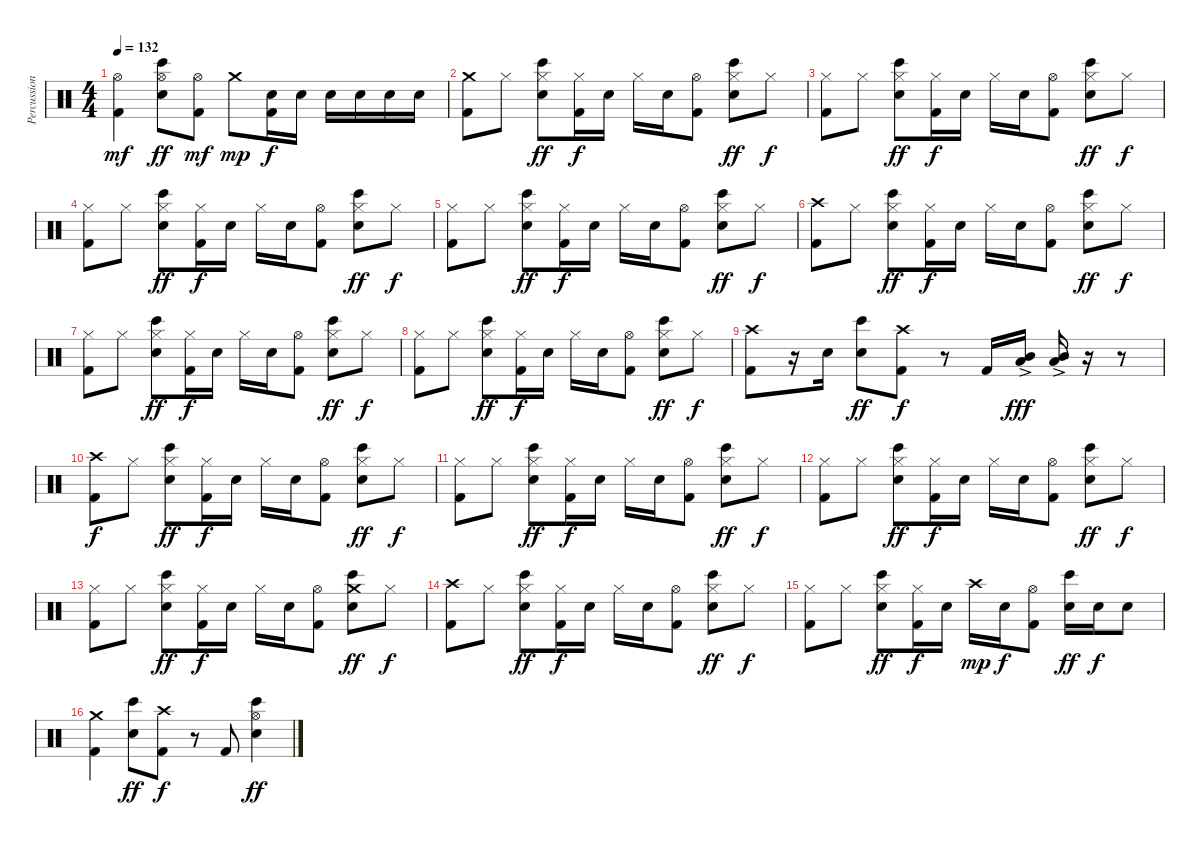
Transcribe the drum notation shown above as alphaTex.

\track ("Percussion" "Percussion") {instrument percussion}
\staff {score}
\articulation defaults
\ts (4 4)
\tempo 132
\clef neutral
\ks c
("Hi-Hat (open)" "Kick (hit) 2").4{dy mf} ("Hi-Hat (open)" "Bongo High (hit)" "Snare (hit) 2").8{dy ff} ("Hi-Hat (open)" "Kick (hit) 2").8{dy mf} "Crash medium (hit)".8{dy mp} ("Snare (hit) 2" "Kick (hit) 2").16{dy f} "Snare (hit) 2".16 "Snare (hit) 2".16 "Snare (hit) 2".16 "Snare (hit) 2".16 "Snare (hit) 2".16 |
("Crash medium (hit)" "Kick (hit) 2").8 "Hi-Hat (closed)".8 ("Hi-Hat (closed)" "Bongo High (hit)" "Snare (hit) 2").8{dy ff} ("Hi-Hat (closed)" "Kick (hit) 2").16{dy f} "Snare (hit) 2".16 "Hi-Hat (closed)".16 "Snare (hit) 2".16 ("Hi-Hat (open)" "Kick (hit) 2").8 ("Hi-Hat (closed)" "Bongo High (hit)" "Snare (hit) 2").8{dy ff} "Hi-Hat (closed)".8{dy f} |
("Hi-Hat (closed)" "Kick (hit) 2").8 "Hi-Hat (closed)".8 ("Hi-Hat (closed)" "Bongo High (hit)" "Snare (hit) 2").8{dy ff} ("Hi-Hat (closed)" "Kick (hit) 2").16{dy f} "Snare (hit) 2".16 "Hi-Hat (closed)".16 "Snare (hit) 2".16 ("Hi-Hat (open)" "Kick (hit) 2").8 ("Hi-Hat (closed)" "Bongo High (hit)" "Snare (hit) 2").8{dy ff} "Hi-Hat (closed)".8{dy f} |
("Hi-Hat (closed)" "Kick (hit) 2").8 "Hi-Hat (closed)".8 ("Hi-Hat (closed)" "Bongo High (hit)" "Snare (hit) 2").8{dy ff} ("Hi-Hat (closed)" "Kick (hit) 2").16{dy f} "Snare (hit) 2".16 "Hi-Hat (closed)".16 "Snare (hit) 2".16 ("Hi-Hat (open)" "Kick (hit) 2").8 ("Hi-Hat (closed)" "Bongo High (hit)" "Snare (hit) 2").8{dy ff} "Hi-Hat (closed)".8{dy f} |
("Hi-Hat (closed)" "Kick (hit) 2").8 "Hi-Hat (closed)".8 ("Hi-Hat (closed)" "Bongo High (hit)" "Snare (hit) 2").8{dy ff} ("Hi-Hat (closed)" "Kick (hit) 2").16{dy f} "Snare (hit) 2".16 "Hi-Hat (closed)".16 "Snare (hit) 2".16 ("Hi-Hat (open)" "Kick (hit) 2").8 ("Hi-Hat (closed)" "Bongo High (hit)" "Snare (hit) 2").8{dy ff} "Hi-Hat (closed)".8{dy f} |
("Crash high (hit)" "Kick (hit) 2").8 "Hi-Hat (closed)".8 ("Hi-Hat (closed)" "Bongo High (hit)" "Snare (hit) 2").8{dy ff} ("Hi-Hat (closed)" "Kick (hit) 2").16{dy f} "Snare (hit) 2".16 "Hi-Hat (closed)".16 "Snare (hit) 2".16 ("Hi-Hat (open)" "Kick (hit) 2").8 ("Hi-Hat (closed)" "Bongo High (hit)" "Snare (hit) 2").8{dy ff} "Hi-Hat (closed)".8{dy f} |
("Hi-Hat (closed)" "Kick (hit) 2").8 "Hi-Hat (closed)".8 ("Hi-Hat (closed)" "Bongo High (hit)" "Snare (hit) 2").8{dy ff} ("Hi-Hat (closed)" "Kick (hit) 2").16{dy f} "Snare (hit) 2".16 "Hi-Hat (closed)".16 "Snare (hit) 2".16 ("Hi-Hat (open)" "Kick (hit) 2").8 ("Hi-Hat (closed)" "Bongo High (hit)" "Snare (hit) 2").8{dy ff} "Hi-Hat (closed)".8{dy f} |
("Hi-Hat (closed)" "Kick (hit) 2").8 "Hi-Hat (closed)".8 ("Hi-Hat (closed)" "Bongo High (hit)" "Snare (hit) 2").8{dy ff} ("Hi-Hat (closed)" "Kick (hit) 2").16{dy f} "Snare (hit) 2".16 "Hi-Hat (closed)".16 "Snare (hit) 2".16 ("Hi-Hat (open)" "Kick (hit) 2").8 ("Hi-Hat (closed)" "Bongo High (hit)" "Snare (hit) 2").8{dy ff} "Hi-Hat (closed)".8{dy f} |
("Crash high (hit)" "Kick (hit) 2").8 r.16 "Snare (hit) 2".16 ("Bongo High (hit)" "Snare (hit) 2").8{dy ff} ("Crash high (hit)" "Kick (hit) 2").8{dy f} r.8 "Kick (hit) 2".16 ("Mid Tom (hit)" "Low Tom (hit)"{ac}).16{dy fff} ("Mid Tom (hit)" "Low Tom (hit)"{ac}).16 r.16 r.8 |
("Crash high (hit)" "Kick (hit) 2").8{dy f} "Hi-Hat (closed)".8 ("Hi-Hat (closed)" "Bongo High (hit)" "Snare (hit) 2").8{dy ff} ("Hi-Hat (closed)" "Kick (hit) 2").16{dy f} "Snare (hit) 2".16 "Hi-Hat (closed)".16 "Snare (hit) 2".16 ("Hi-Hat (open)" "Kick (hit) 2").8 ("Hi-Hat (closed)" "Bongo High (hit)" "Snare (hit) 2").8{dy ff} "Hi-Hat (closed)".8{dy f} |
("Hi-Hat (closed)" "Kick (hit) 2").8 "Hi-Hat (closed)".8 ("Hi-Hat (closed)" "Bongo High (hit)" "Snare (hit) 2").8{dy ff} ("Hi-Hat (closed)" "Kick (hit) 2").16{dy f} "Snare (hit) 2".16 "Hi-Hat (closed)".16 "Snare (hit) 2".16 ("Hi-Hat (open)" "Kick (hit) 2").8 ("Hi-Hat (closed)" "Bongo High (hit)" "Snare (hit) 2").8{dy ff} "Hi-Hat (closed)".8{dy f} |
("Hi-Hat (closed)" "Kick (hit) 2").8 "Hi-Hat (closed)".8 ("Hi-Hat (closed)" "Bongo High (hit)" "Snare (hit) 2").8{dy ff} ("Hi-Hat (closed)" "Kick (hit) 2").16{dy f} "Snare (hit) 2".16 "Hi-Hat (closed)".16 "Snare (hit) 2".16 ("Hi-Hat (open)" "Kick (hit) 2").8 ("Hi-Hat (closed)" "Bongo High (hit)" "Snare (hit) 2").8{dy ff} "Hi-Hat (closed)".8{dy f} |
("Hi-Hat (closed)" "Kick (hit) 2").8 "Hi-Hat (closed)".8 ("Hi-Hat (closed)" "Bongo High (hit)" "Snare (hit) 2").8{dy ff} ("Hi-Hat (closed)" "Kick (hit) 2").16{dy f} "Snare (hit) 2".16 "Hi-Hat (closed)".16 "Snare (hit) 2".16 ("Hi-Hat (open)" "Kick (hit) 2").8 ("Crash medium (hit)" "Bongo High (hit)" "Snare (hit) 2").8{dy ff} "Hi-Hat (closed)".8{dy f} |
("Crash high (hit)" "Kick (hit) 2").8 "Hi-Hat (closed)".8 ("Hi-Hat (closed)" "Bongo High (hit)" "Snare (hit) 2").8{dy ff} ("Hi-Hat (closed)" "Kick (hit) 2").16{dy f} "Snare (hit) 2".16 "Hi-Hat (closed)".16 "Snare (hit) 2".16 ("Hi-Hat (open)" "Kick (hit) 2").8 ("Hi-Hat (closed)" "Bongo High (hit)" "Snare (hit) 2").8{dy ff} "Hi-Hat (closed)".8{dy f} |
("Hi-Hat (closed)" "Kick (hit) 2").8 "Hi-Hat (closed)".8 ("Hi-Hat (closed)" "Bongo High (hit)" "Snare (hit) 2").8{dy ff} ("Hi-Hat (closed)" "Kick (hit) 2").16{dy f} "Snare (hit) 2".16 "Crash high (hit)".16{dy mp} "Snare (hit) 2".16{dy f} ("Hi-Hat (open)" "Kick (hit) 2").8 ("Bongo High (hit)" "Snare (hit) 2").16{dy ff} "Snare (hit) 2".16{dy f} "Snare (hit) 2".8 |
("Crash medium (hit)" "Kick (hit) 2").4 ("Bongo High (hit)" "Snare (hit) 2").8{dy ff} ("Crash high (hit)" "Kick (hit) 2").8{dy f} r.8 "Kick (hit) 2".8 ("Hi-Hat (open)" "Bongo High (hit)" "Snare (hit) 2").4{dy ff}
